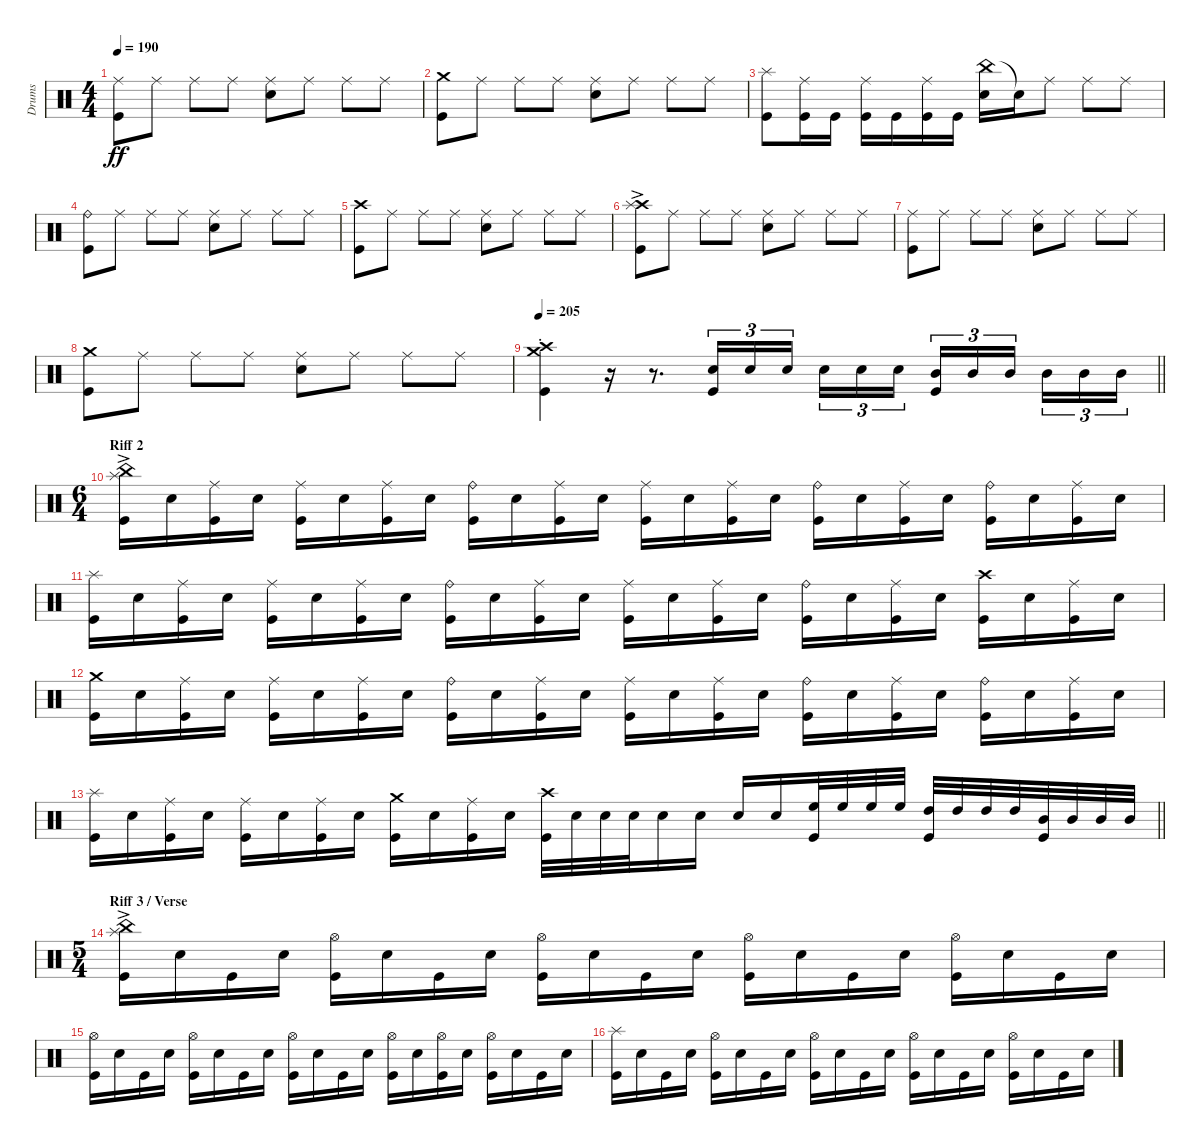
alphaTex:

\track ("Drums" "Drums") {instrument percussion}
\staff {score}
\articulation defaults
\ts (4 4)
\tempo 190
\clef neutral
\ks c
("Ride (middle)" "Kick (hit)").8{dy ff} "Ride (middle)".8 "Ride (middle)".8 "Ride (middle)".8 ("Ride (middle)" "Electric Snare (hit)").8 "Ride (middle)".8 "Ride (middle)".8 "Ride (middle)".8 |
("Crash medium (hit)" "Kick (hit)").8 "Ride (middle)".8 "Ride (middle)".8 "Ride (middle)".8 ("Ride (middle)" "Electric Snare (hit)").8 "Ride (middle)".8 "Ride (middle)".8 "Ride (middle)".8 |
("Splash (hit)" "Kick (hit)").8 ("Ride (middle)" "Kick (hit)").16 "Kick (hit)".16 ("Ride (middle)" "Kick (hit)").16 "Kick (hit)".16 ("Ride (middle)" "Kick (hit)").16 "Kick (hit)".16 ("China (hit)" "Electric Snare (hit)").16 "Snare (hit)"{t}.16 "Ride (middle)".8 "Ride (middle)".8 "Ride (middle)".8 |
("Ride (bell)" "Kick (hit)").8 "Ride (middle)".8 "Ride (middle)".8 "Ride (middle)".8 ("Ride (middle)" "Electric Snare (hit)").8 "Ride (middle)".8 "Ride (middle)".8 "Ride (middle)".8 |
("Crash high (hit)" "Kick (hit)").8 "Ride (middle)".8 "Ride (middle)".8 "Ride (middle)".8 ("Ride (middle)" "Electric Snare (hit)").8 "Ride (middle)".8 "Ride (middle)".8 "Ride (middle)".8 |
("Crash high (hit)" "Splash (hit)"{ac} "Kick (hit)").8 "Ride (middle)".8 "Ride (middle)".8 "Ride (middle)".8 ("Ride (middle)" "Electric Snare (hit)").8 "Ride (middle)".8 "Ride (middle)".8 "Ride (middle)".8 |
("Ride (middle)" "Kick (hit)").8 "Ride (middle)".8 "Ride (middle)".8 "Ride (middle)".8 ("Ride (middle)" "Electric Snare (hit)").8 "Ride (middle)".8 "Ride (middle)".8 "Ride (middle)".8 |
("Crash medium (hit)" "Kick (hit)").8 "Ride (middle)".8 "Ride (middle)".8 "Ride (middle)".8 ("Ride (middle)" "Electric Snare (hit)").8 "Ride (middle)".8 "Ride (middle)".8 "Ride (middle)".8 |
\tempo 205
\barLineRight lightlight
("Crash high (hit)"{st} "Crash medium (hit)"{st} "Kick (hit)"{st}).4 r.16 r.8{d} ("Electric Snare (hit)" "Kick (hit)").16{tu (3 2)} "Electric Snare (hit)".16{tu (3 2)} "Electric Snare (hit)".16{tu (3 2) beam splitsecondary} "Electric Snare (hit)".16{tu (3 2)} "Electric Snare (hit)".16{tu (3 2)} "Electric Snare (hit)".16{tu (3 2)} ("Mid Tom (hit)" "Kick (hit)").16{tu (3 2)} "Mid Tom (hit)".16{tu (3 2)} "Mid Tom (hit)".16{tu (3 2) beam splitsecondary} "Mid Tom (hit)".16{tu (3 2)} "Mid Tom (hit)".16{tu (3 2)} "Mid Tom (hit)".16{tu (3 2)} |
\ts (6 4)
\section ("" "Riff 2")
("China (hit)"{ac} "Splash (hit)" "Kick (hit)").16 "Electric Snare (hit)".16 ("Ride (middle)" "Kick (hit)").16 "Electric Snare (hit)".16 ("Ride (middle)" "Kick (hit)").16 "Electric Snare (hit)".16 ("Ride (middle)" "Kick (hit)").16 "Electric Snare (hit)".16 ("Ride (bell)" "Kick (hit)").16 "Electric Snare (hit)".16 ("Ride (middle)" "Kick (hit)").16 "Electric Snare (hit)".16 ("Ride (middle)" "Kick (hit)").16 "Electric Snare (hit)".16 ("Ride (middle)" "Kick (hit)").16 "Electric Snare (hit)".16 ("Ride (bell)" "Kick (hit)").16 "Electric Snare (hit)".16 ("Ride (middle)" "Kick (hit)").16 "Electric Snare (hit)".16 ("Ride (bell)" "Kick (hit)").16 "Electric Snare (hit)".16 ("Ride (middle)" "Kick (hit)").16 "Electric Snare (hit)".16 |
("Splash (hit)" "Kick (hit)").16 "Electric Snare (hit)".16 ("Ride (middle)" "Kick (hit)").16 "Electric Snare (hit)".16 ("Ride (middle)" "Kick (hit)").16 "Electric Snare (hit)".16 ("Ride (middle)" "Kick (hit)").16 "Electric Snare (hit)".16 ("Ride (bell)" "Kick (hit)").16 "Electric Snare (hit)".16 ("Ride (middle)" "Kick (hit)").16 "Electric Snare (hit)".16 ("Ride (middle)" "Kick (hit)").16 "Electric Snare (hit)".16 ("Ride (middle)" "Kick (hit)").16 "Electric Snare (hit)".16 ("Ride (bell)" "Kick (hit)").16 "Electric Snare (hit)".16 ("Ride (middle)" "Kick (hit)").16 "Electric Snare (hit)".16 ("Crash high (hit)" "Kick (hit)").16 "Electric Snare (hit)".16 ("Ride (middle)" "Kick (hit)").16 "Electric Snare (hit)".16 |
("Crash medium (hit)" "Kick (hit)").16 "Electric Snare (hit)".16 ("Ride (middle)" "Kick (hit)").16 "Electric Snare (hit)".16 ("Ride (middle)" "Kick (hit)").16 "Electric Snare (hit)".16 ("Ride (middle)" "Kick (hit)").16 "Electric Snare (hit)".16 ("Ride (bell)" "Kick (hit)").16 "Electric Snare (hit)".16 ("Ride (middle)" "Kick (hit)").16 "Electric Snare (hit)".16 ("Ride (middle)" "Kick (hit)").16 "Electric Snare (hit)".16 ("Ride (middle)" "Kick (hit)").16 "Electric Snare (hit)".16 ("Ride (bell)" "Kick (hit)").16 "Electric Snare (hit)".16 ("Ride (middle)" "Kick (hit)").16 "Electric Snare (hit)".16 ("Ride (bell)" "Kick (hit)").16 "Electric Snare (hit)".16 ("Ride (middle)" "Kick (hit)").16 "Electric Snare (hit)".16 |
\barLineRight lightlight
("Splash (hit)" "Kick (hit)").16 "Electric Snare (hit)".16 ("Ride (middle)" "Kick (hit)").16 "Electric Snare (hit)".16 ("Ride (middle)" "Kick (hit)").16 "Electric Snare (hit)".16 ("Ride (middle)" "Kick (hit)").16 "Electric Snare (hit)".16 ("Crash medium (hit)" "Kick (hit)").16 "Electric Snare (hit)".16 ("Ride (middle)" "Kick (hit)").16 "Electric Snare (hit)".16 ("Crash high (hit)" "Kick (hit)").32 "Electric Snare (hit)".32 "Electric Snare (hit)".32 "Electric Snare (hit)".32 "Electric Snare (hit)".16 "Electric Snare (hit)".16 "Electric Snare (hit)".16 "Electric Snare (hit)".16 ("High Floor Tom (hit)" "Kick (hit)").32 "High Floor Tom (hit)".32 "High Floor Tom (hit)".32 "High Floor Tom (hit)".32 ("High Tom (hit)" "Kick (hit)").32 "High Tom (hit)".32 "High Tom (hit)".32 "High Tom (hit)".32 ("Mid Tom (hit)" "Kick (hit)").32 "Mid Tom (hit)".32 "Mid Tom (hit)".32 "Mid Tom (hit)".32 |
\ts (5 4)
\section ("" "Riff 3 / Verse")
("China (hit)"{ac} "Splash (hit)" "Kick (hit)").16 "Electric Snare (hit)".16 "Kick (hit)".16 "Electric Snare (hit)".16 ("Hi-Hat (open)" "Kick (hit)").16 "Electric Snare (hit)".16 "Kick (hit)".16 "Electric Snare (hit)".16 ("Hi-Hat (open)" "Kick (hit)").16 "Electric Snare (hit)".16 "Kick (hit)".16 "Electric Snare (hit)".16 ("Hi-Hat (open)" "Kick (hit)").16 "Electric Snare (hit)".16 "Kick (hit)".16 "Electric Snare (hit)".16 ("Hi-Hat (open)" "Kick (hit)").16 "Electric Snare (hit)".16 "Kick (hit)".16 "Electric Snare (hit)".16 |
("Hi-Hat (open)" "Kick (hit)").16 "Electric Snare (hit)".16 "Kick (hit)".16 "Electric Snare (hit)".16 ("Hi-Hat (open)" "Kick (hit)").16 "Electric Snare (hit)".16 "Kick (hit)".16 "Electric Snare (hit)".16 ("Hi-Hat (open)" "Kick (hit)").16 "Electric Snare (hit)".16 "Kick (hit)".16 "Electric Snare (hit)".16 ("Hi-Hat (open)" "Kick (hit)").16 "Electric Snare (hit)".16 ("Hi-Hat (open)" "Kick (hit)").16 "Electric Snare (hit)".16 ("Hi-Hat (open)" "Kick (hit)").16 "Electric Snare (hit)".16 "Kick (hit)".16 "Electric Snare (hit)".16 |
("Splash (hit)" "Kick (hit)").16 "Electric Snare (hit)".16 "Kick (hit)".16 "Electric Snare (hit)".16 ("Hi-Hat (open)" "Kick (hit)").16 "Electric Snare (hit)".16 "Kick (hit)".16 "Electric Snare (hit)".16 ("Hi-Hat (open)" "Kick (hit)").16 "Electric Snare (hit)".16 "Kick (hit)".16 "Electric Snare (hit)".16 ("Hi-Hat (open)" "Kick (hit)").16 "Electric Snare (hit)".16 "Kick (hit)".16 "Electric Snare (hit)".16 ("Hi-Hat (open)" "Kick (hit)").16 "Electric Snare (hit)".16 "Kick (hit)".16 "Electric Snare (hit)".16
